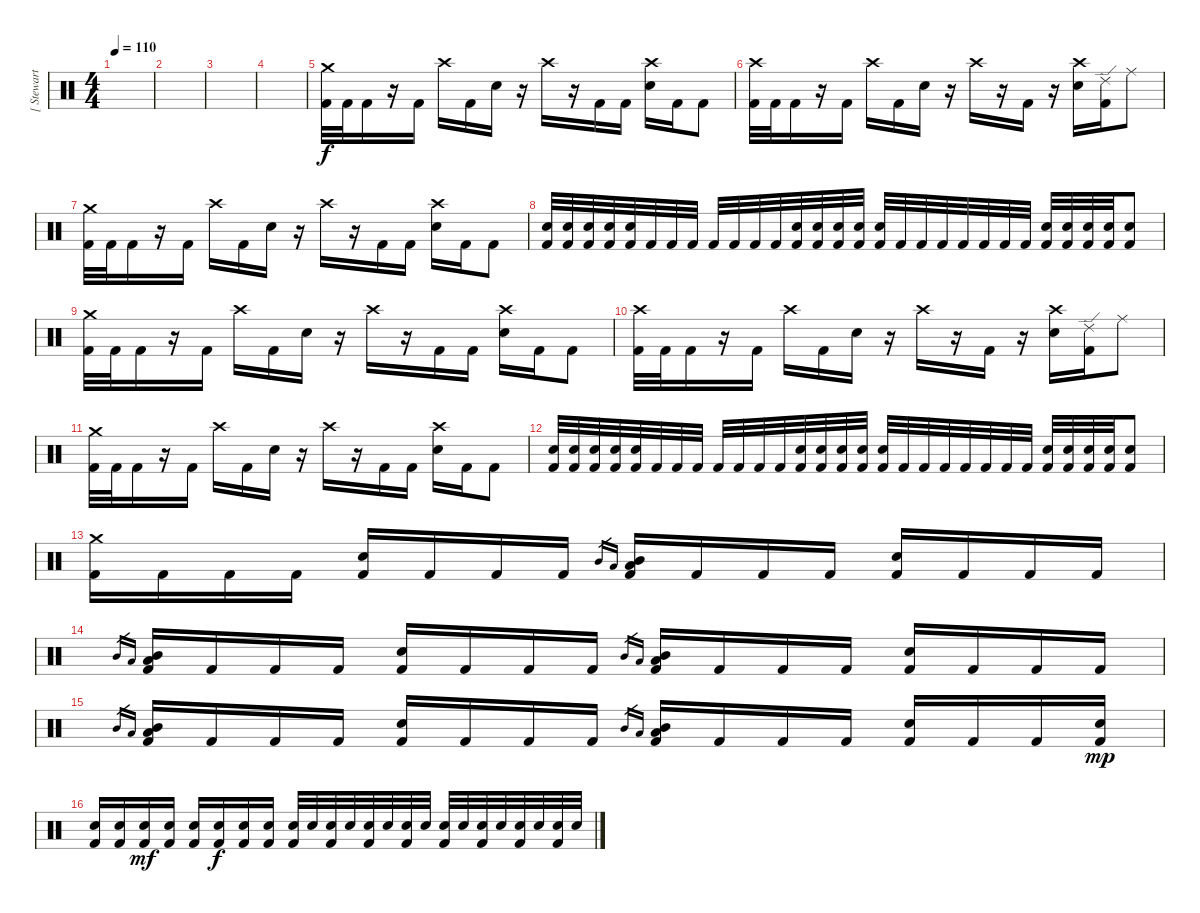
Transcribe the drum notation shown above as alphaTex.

\track ("[ Stewart ]" "[ Stewart ") {instrument percussion}
\staff {score}
\articulation defaults
\ts (4 4)
\tempo 110
\clef neutral
\ks c
|
|
|
|
("Kick (hit) 2" "Crash medium (hit)").32 "Kick (hit) 2".32 "Kick (hit) 2".16 r.16 "Kick (hit) 2".16 "Crash high (hit)".16 "Kick (hit) 2".16 "Electric Snare (hit)".16 r.16 "Crash high (hit)".16 r.16 "Kick (hit) 2".16 "Kick (hit) 2".16 ("Electric Snare (hit)" "Crash high (hit)").16 "Kick (hit) 2".16 "Kick (hit) 2".8 |
("Kick (hit) 2" "Crash high (hit)").32 "Kick (hit) 2".32 "Kick (hit) 2".16 r.16 "Kick (hit) 2".16 "Crash high (hit)".16 "Kick (hit) 2".16 "Electric Snare (hit)".16 r.16 "Crash high (hit)".16 r.16 "Kick (hit) 2".16 r.16 ("Electric Snare (hit)" "Crash high (hit)").16 ("Kick (hit) 2" "Ride (edge) 2").16 "Ride (middle)".8 |
("Kick (hit) 2" "Crash medium (hit)").32 "Kick (hit) 2".32 "Kick (hit) 2".16 r.16 "Kick (hit) 2".16 "Crash high (hit)".16 "Kick (hit) 2".16 "Electric Snare (hit)".16 r.16 "Crash high (hit)".16 r.16 "Kick (hit) 2".16 "Kick (hit) 2".16 ("Electric Snare (hit)" "Crash high (hit)").16 "Kick (hit) 2".16 "Kick (hit) 2".8 |
("Kick (hit) 2" "Electric Snare (hit)").32 ("Kick (hit) 2" "Electric Snare (hit)").32 ("Kick (hit) 2" "Electric Snare (hit)").32 ("Kick (hit) 2" "Electric Snare (hit)").32 ("Kick (hit) 2" "Electric Snare (hit)").32 "Kick (hit) 2".32 "Kick (hit) 2".32 "Kick (hit) 2".32 "Kick (hit) 2".32 "Kick (hit) 2".32 "Kick (hit) 2".32 "Kick (hit) 2".32 ("Kick (hit) 2" "Electric Snare (hit)").32 ("Kick (hit) 2" "Electric Snare (hit)").32 ("Kick (hit) 2" "Electric Snare (hit)").32 ("Kick (hit) 2" "Electric Snare (hit)").32 ("Kick (hit) 2" "Electric Snare (hit)").32 "Kick (hit) 2".32 "Kick (hit) 2".32 "Kick (hit) 2".32 "Kick (hit) 2".32 "Kick (hit) 2".32 "Kick (hit) 2".32 "Kick (hit) 2".32 ("Kick (hit) 2" "Electric Snare (hit)").32 ("Kick (hit) 2" "Electric Snare (hit)").32 ("Kick (hit) 2" "Electric Snare (hit)").32 ("Kick (hit) 2" "Electric Snare (hit)").32 ("Kick (hit) 2" "Electric Snare (hit)").8 |
("Kick (hit) 2" "Crash medium (hit)").32 "Kick (hit) 2".32 "Kick (hit) 2".16 r.16 "Kick (hit) 2".16 "Crash high (hit)".16 "Kick (hit) 2".16 "Electric Snare (hit)".16 r.16 "Crash high (hit)".16 r.16 "Kick (hit) 2".16 "Kick (hit) 2".16 ("Electric Snare (hit)" "Crash high (hit)").16 "Kick (hit) 2".16 "Kick (hit) 2".8 |
("Kick (hit) 2" "Crash high (hit)").32 "Kick (hit) 2".32 "Kick (hit) 2".16 r.16 "Kick (hit) 2".16 "Crash high (hit)".16 "Kick (hit) 2".16 "Electric Snare (hit)".16 r.16 "Crash high (hit)".16 r.16 "Kick (hit) 2".16 r.16 ("Electric Snare (hit)" "Crash high (hit)").16 ("Kick (hit) 2" "Ride (edge) 2").16 "Ride (middle)".8 |
("Kick (hit) 2" "Crash medium (hit)").32 "Kick (hit) 2".32 "Kick (hit) 2".16 r.16 "Kick (hit) 2".16 "Crash high (hit)".16 "Kick (hit) 2".16 "Electric Snare (hit)".16 r.16 "Crash high (hit)".16 r.16 "Kick (hit) 2".16 "Kick (hit) 2".16 ("Electric Snare (hit)" "Crash high (hit)").16 "Kick (hit) 2".16 "Kick (hit) 2".8 |
("Kick (hit) 2" "Electric Snare (hit)").32 ("Kick (hit) 2" "Electric Snare (hit)").32 ("Kick (hit) 2" "Electric Snare (hit)").32 ("Kick (hit) 2" "Electric Snare (hit)").32 ("Kick (hit) 2" "Electric Snare (hit)").32 "Kick (hit) 2".32 "Kick (hit) 2".32 "Kick (hit) 2".32 "Kick (hit) 2".32 "Kick (hit) 2".32 "Kick (hit) 2".32 "Kick (hit) 2".32 ("Kick (hit) 2" "Electric Snare (hit)").32 ("Kick (hit) 2" "Electric Snare (hit)").32 ("Kick (hit) 2" "Electric Snare (hit)").32 ("Kick (hit) 2" "Electric Snare (hit)").32 ("Kick (hit) 2" "Electric Snare (hit)").32 "Kick (hit) 2".32 "Kick (hit) 2".32 "Kick (hit) 2".32 "Kick (hit) 2".32 "Kick (hit) 2".32 "Kick (hit) 2".32 "Kick (hit) 2".32 ("Kick (hit) 2" "Electric Snare (hit)").32 ("Kick (hit) 2" "Electric Snare (hit)").32 ("Kick (hit) 2" "Electric Snare (hit)").32 ("Kick (hit) 2" "Electric Snare (hit)").32 ("Kick (hit) 2" "Electric Snare (hit)").8 |
("Kick (hit) 2" "Crash medium (hit)").16 "Kick (hit) 2".16 "Kick (hit) 2".16 "Kick (hit) 2".16 ("Kick (hit) 2" "Electric Snare (hit)").16 "Kick (hit) 2".16 "Kick (hit) 2".16 "Kick (hit) 2".16 "Mid Tom (hit)".16{gr} "Low Tom (hit)".16{gr} ("Kick (hit) 2" "Mid Tom (hit)" "Low Tom (hit)").16 "Kick (hit) 2".16 "Kick (hit) 2".16 "Kick (hit) 2".16 ("Kick (hit) 2" "Electric Snare (hit)").16 "Kick (hit) 2".16 "Kick (hit) 2".16 "Kick (hit) 2".16 |
"Mid Tom (hit)".16{gr} "Low Tom (hit)".16{gr} ("Kick (hit) 2" "Mid Tom (hit)" "Low Tom (hit)").16 "Kick (hit) 2".16 "Kick (hit) 2".16 "Kick (hit) 2".16 ("Kick (hit) 2" "Electric Snare (hit)").16 "Kick (hit) 2".16 "Kick (hit) 2".16 "Kick (hit) 2".16 "Mid Tom (hit)".16{gr} "Low Tom (hit)".16{gr} ("Kick (hit) 2" "Mid Tom (hit)" "Low Tom (hit)").16 "Kick (hit) 2".16 "Kick (hit) 2".16 "Kick (hit) 2".16 ("Kick (hit) 2" "Electric Snare (hit)").16 "Kick (hit) 2".16 "Kick (hit) 2".16 "Kick (hit) 2".16 |
"Mid Tom (hit)".16{gr} "Low Tom (hit)".16{gr} ("Kick (hit) 2" "Mid Tom (hit)" "Low Tom (hit)").16 "Kick (hit) 2".16 "Kick (hit) 2".16 "Kick (hit) 2".16 ("Kick (hit) 2" "Electric Snare (hit)").16 "Kick (hit) 2".16 "Kick (hit) 2".16 "Kick (hit) 2".16 "Mid Tom (hit)".16{gr} "Low Tom (hit)".16{gr} ("Kick (hit) 2" "Mid Tom (hit)" "Low Tom (hit)").16 "Kick (hit) 2".16 "Kick (hit) 2".16 "Kick (hit) 2".16 ("Kick (hit) 2" "Electric Snare (hit)").16 "Kick (hit) 2".16 "Kick (hit) 2".16 ("Kick (hit) 2" "Electric Snare (hit)").16{dy mp} |
("Kick (hit) 2" "Electric Snare (hit)").16 ("Kick (hit) 2" "Electric Snare (hit)").16 ("Kick (hit) 2" "Electric Snare (hit)").16{dy mf} ("Kick (hit) 2" "Electric Snare (hit)").16 ("Kick (hit) 2" "Electric Snare (hit)").16 ("Kick (hit) 2" "Electric Snare (hit)").16{dy f} ("Kick (hit) 2" "Electric Snare (hit)").16 ("Kick (hit) 2" "Electric Snare (hit)").16 ("Kick (hit) 2" "Electric Snare (hit)").32 "Electric Snare (hit)".32 ("Kick (hit) 2" "Electric Snare (hit)").32 "Electric Snare (hit)".32 ("Kick (hit) 2" "Electric Snare (hit)").32 "Electric Snare (hit)".32 ("Kick (hit) 2" "Electric Snare (hit)").32 "Electric Snare (hit)".32 ("Kick (hit) 2" "Electric Snare (hit)").32 "Electric Snare (hit)".32 ("Kick (hit) 2" "Electric Snare (hit)").32 "Electric Snare (hit)".32 ("Kick (hit) 2" "Electric Snare (hit)").32 "Electric Snare (hit)".32 ("Kick (hit) 2" "Electric Snare (hit)").32 "Electric Snare (hit)".32
